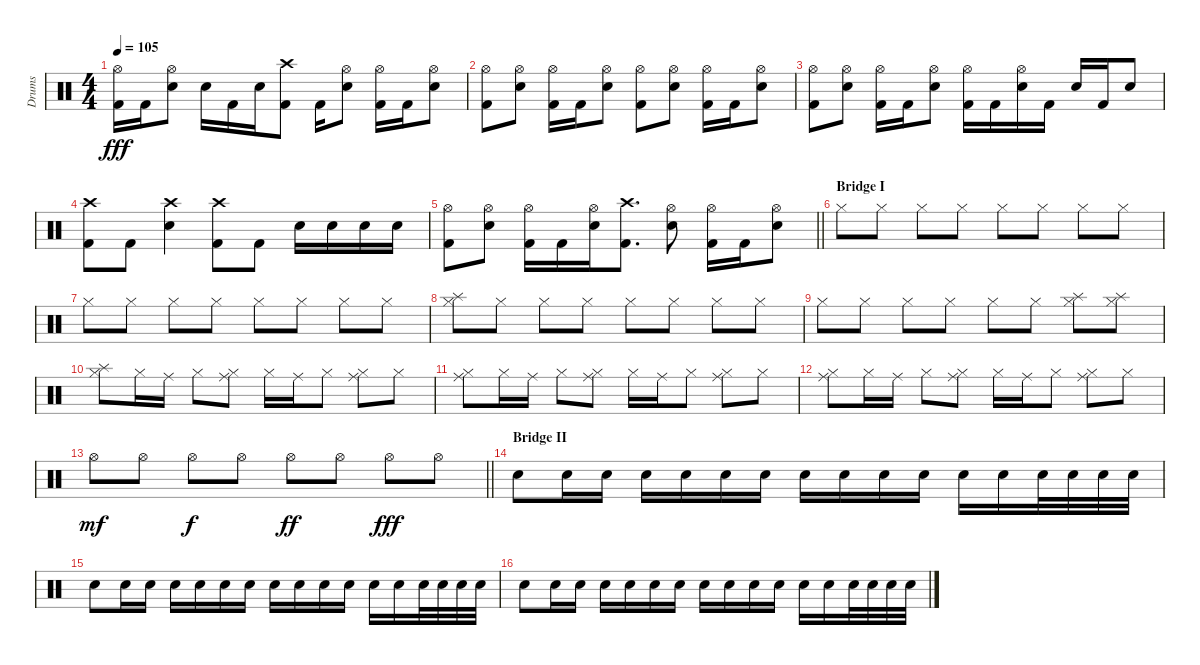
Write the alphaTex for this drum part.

\track ("Drums" "Drums") {instrument percussion}
\staff {score}
\articulation defaults
\ts (4 4)
\tempo 105
\clef neutral
\ks c
("Hi-Hat (open)" "Kick (hit) 2").16{dy fff} "Kick (hit) 2".16 ("Hi-Hat (open)" "Electric Snare (hit)").8 "Electric Snare (hit)".16 "Kick (hit) 2".16 "Electric Snare (hit)".16 ("Crash high (hit)" "Kick (hit) 2").8 "Kick (hit) 2".16 ("Hi-Hat (open)" "Electric Snare (hit)").8 ("Hi-Hat (open)" "Kick (hit) 2").16 "Kick (hit) 2".16 ("Hi-Hat (open)" "Electric Snare (hit)").8 |
("Hi-Hat (open)" "Kick (hit) 2").8 ("Hi-Hat (open)" "Electric Snare (hit)").8 ("Hi-Hat (open)" "Kick (hit) 2").16 "Kick (hit) 2".16 ("Hi-Hat (open)" "Electric Snare (hit)").8 ("Hi-Hat (open)" "Kick (hit) 2").8 ("Hi-Hat (open)" "Electric Snare (hit)").8 ("Hi-Hat (open)" "Kick (hit) 2").16 "Kick (hit) 2".16 ("Hi-Hat (open)" "Electric Snare (hit)").8 |
("Hi-Hat (open)" "Kick (hit) 2").8 ("Hi-Hat (open)" "Electric Snare (hit)").8 ("Hi-Hat (open)" "Kick (hit) 2").16 "Kick (hit) 2".16 ("Hi-Hat (open)" "Electric Snare (hit)").8 ("Hi-Hat (open)" "Kick (hit) 2").16 "Kick (hit) 2".16 ("Hi-Hat (open)" "Electric Snare (hit)").16 "Kick (hit) 2".16 "Electric Snare (hit)".16 "Kick (hit) 2".16 "Electric Snare (hit)".8 |
("Crash high (hit)" "Kick (hit) 2").8 "Kick (hit) 2".8 ("Crash high (hit)" "Electric Snare (hit)").4 ("Crash high (hit)" "Kick (hit) 2").8 "Kick (hit) 2".8 "Electric Snare (hit)".16 "Electric Snare (hit)".16 "Electric Snare (hit)".16 "Electric Snare (hit)".16 |
\barLineRight lightlight
("Hi-Hat (open)" "Kick (hit) 2").8 ("Hi-Hat (open)" "Electric Snare (hit)").8 ("Hi-Hat (open)" "Kick (hit) 2").16 "Kick (hit) 2".16 ("Hi-Hat (open)" "Electric Snare (hit)").16 ("Crash high (hit)" "Kick (hit) 2").8{d} ("Hi-Hat (open)" "Electric Snare (hit)").8 ("Hi-Hat (open)" "Kick (hit) 2").16 "Kick (hit) 2".16 ("Hi-Hat (open)" "Electric Snare (hit)").8 |
\section ("" "Bridge I")
"Hi-Hat (closed)".8 "Hi-Hat (closed)".8 "Hi-Hat (closed)".8 "Hi-Hat (closed)".8 "Hi-Hat (closed)".8 "Hi-Hat (closed)".8 "Hi-Hat (closed)".8 "Hi-Hat (closed)".8 |
"Hi-Hat (closed)".8 "Hi-Hat (closed)".8 "Hi-Hat (closed)".8 "Hi-Hat (closed)".8 "Hi-Hat (closed)".8 "Hi-Hat (closed)".8 "Hi-Hat (closed)".8 "Hi-Hat (closed)".8 |
("Splash (hit)" "Hi-Hat (closed)").8 "Hi-Hat (closed)".8 "Hi-Hat (closed)".8 "Hi-Hat (closed)".8 "Hi-Hat (closed)".8 "Hi-Hat (closed)".8 "Hi-Hat (closed)".8 "Hi-Hat (closed)".8 |
"Hi-Hat (closed)".8 "Hi-Hat (closed)".8 "Hi-Hat (closed)".8 "Hi-Hat (closed)".8 "Hi-Hat (closed)".8 "Hi-Hat (closed)".8 ("Splash (hit)" "Hi-Hat (closed)").8 ("Splash (hit)" "Hi-Hat (closed)").8 |
("Splash (hit)" "Hi-Hat (closed)").8 "Hi-Hat (closed)".16 "Ride (middle)".16 "Hi-Hat (closed)".8 ("Ride (middle)" "Hi-Hat (closed)").8 "Hi-Hat (closed)".16 "Ride (middle)".16 "Hi-Hat (closed)".8 ("Ride (middle)" "Hi-Hat (closed)").8 "Hi-Hat (closed)".8 |
("Ride (middle)" "Hi-Hat (closed)").8 "Hi-Hat (closed)".16 "Ride (middle)".16 "Hi-Hat (closed)".8 ("Ride (middle)" "Hi-Hat (closed)").8 "Hi-Hat (closed)".16 "Ride (middle)".16 "Hi-Hat (closed)".8 ("Ride (middle)" "Hi-Hat (closed)").8 "Hi-Hat (closed)".8 |
("Ride (middle)" "Hi-Hat (closed)").8 "Hi-Hat (closed)".16 "Ride (middle)".16 "Hi-Hat (closed)".8 ("Ride (middle)" "Hi-Hat (closed)").8 "Hi-Hat (closed)".16 "Ride (middle)".16 "Hi-Hat (closed)".8 ("Ride (middle)" "Hi-Hat (closed)").8 "Hi-Hat (closed)".8 |
\barLineRight lightlight "Hi-Hat (open)".8{dy mf} "Hi-Hat (open)".8 "Hi-Hat (open)".8{dy f} "Hi-Hat (open)".8 "Hi-Hat (open)".8{dy ff} "Hi-Hat (open)".8 "Hi-Hat (open)".8{dy fff} "Hi-Hat (open)".8
|
\section ("" "Bridge II")
"Electric Snare (hit)".8{volume 12} "Electric Snare (hit)".16{volume 7} "Electric Snare (hit)".16 "Electric Snare (hit)".16 "Electric Snare (hit)".16 "Electric Snare (hit)".16 "Electric Snare (hit)".16 "Electric Snare (hit)".16 "Electric Snare (hit)".16 "Electric Snare (hit)".16 "Electric Snare (hit)".16 "Electric Snare (hit)".16 "Electric Snare (hit)".16 "Electric Snare (hit)".32 "Electric Snare (hit)".32 "Electric Snare (hit)".32{volume 12} "Electric Snare (hit)".32 |
"Electric Snare (hit)".8 "Electric Snare (hit)".16{volume 7} "Electric Snare (hit)".16 "Electric Snare (hit)".16 "Electric Snare (hit)".16 "Electric Snare (hit)".16 "Electric Snare (hit)".16 "Electric Snare (hit)".16 "Electric Snare (hit)".16 "Electric Snare (hit)".16 "Electric Snare (hit)".16 "Electric Snare (hit)".16 "Electric Snare (hit)".16 "Electric Snare (hit)".32 "Electric Snare (hit)".32 "Electric Snare (hit)".32{volume 12} "Electric Snare (hit)".32 |
"Electric Snare (hit)".8 "Electric Snare (hit)".16{volume 7} "Electric Snare (hit)".16 "Electric Snare (hit)".16 "Electric Snare (hit)".16 "Electric Snare (hit)".16 "Electric Snare (hit)".16 "Electric Snare (hit)".16 "Electric Snare (hit)".16 "Electric Snare (hit)".16 "Electric Snare (hit)".16 "Electric Snare (hit)".16 "Electric Snare (hit)".16 "Electric Snare (hit)".32 "Electric Snare (hit)".32 "Electric Snare (hit)".32{volume 12} "Electric Snare (hit)".32
